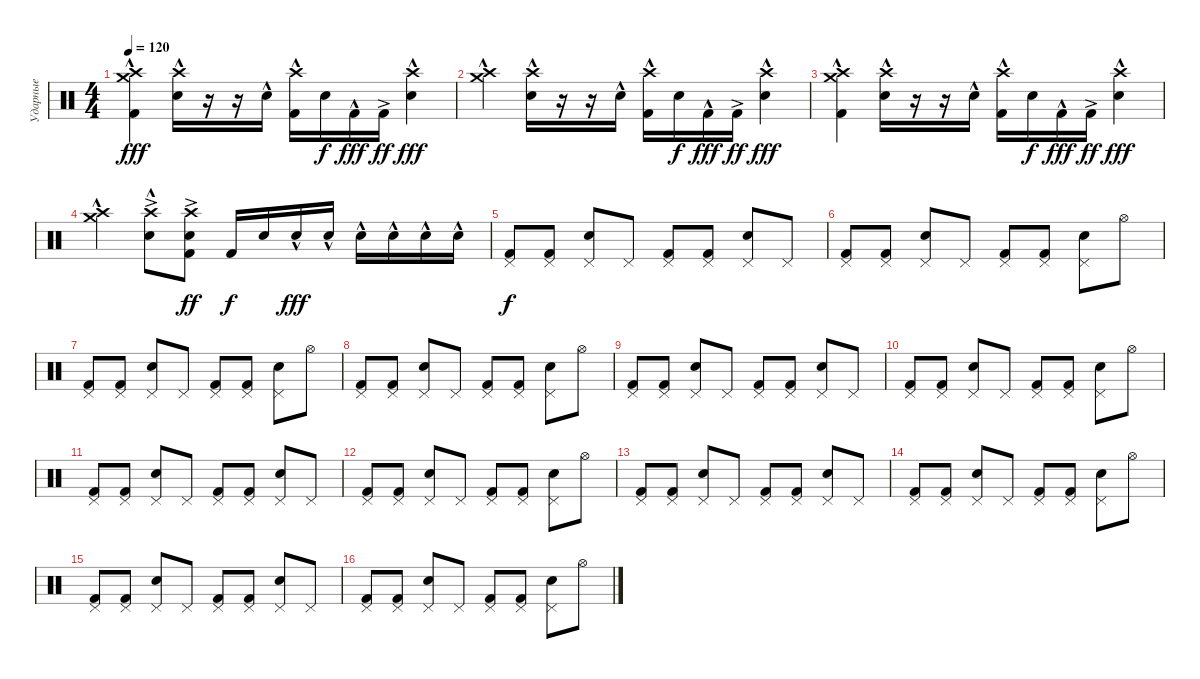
\track ("Ударные" "Ударные") {instrument percussion}
\staff {score}
\articulation defaults
\ts (4 4)
\tempo 120
\clef neutral
\ks c
("Crash high (hit)"{hac} "Crash medium (hit)"{hac} "Kick (hit) 2").4{dy fff} ("Crash high (hit)"{hac} "Electric Snare (hit)"{hac}).16 r.16 r.16 "Electric Snare (hit)"{hac}.16 ("Crash high (hit)"{hac} "Kick (hit) 2").16 "Electric Snare (hit)".16{dy f} "Kick (hit) 2"{hac}.16{dy fff} "Kick (hit) 2"{ac}.16{dy ff} ("Crash high (hit)"{hac} "Electric Snare (hit)"{hac}).4{dy fff} |
("Crash high (hit)"{hac} "Crash medium (hit)"{hac}).4 ("Crash high (hit)"{hac} "Electric Snare (hit)"{hac}).16 r.16 r.16 "Electric Snare (hit)"{hac}.16 ("Crash high (hit)"{hac} "Kick (hit) 2").16 "Electric Snare (hit)".16{dy f} "Kick (hit) 2"{hac}.16{dy fff} "Kick (hit) 2"{ac}.16{dy ff} ("Crash high (hit)"{hac} "Electric Snare (hit)"{hac}).4{dy fff} |
("Crash high (hit)"{hac} "Crash medium (hit)"{hac} "Kick (hit) 2").4 ("Crash high (hit)"{hac} "Electric Snare (hit)"{hac}).16 r.16 r.16 "Electric Snare (hit)"{hac}.16 ("Crash high (hit)"{hac} "Kick (hit) 2").16 "Electric Snare (hit)".16{dy f} "Kick (hit) 2"{hac}.16{dy fff} "Kick (hit) 2"{ac}.16{dy ff} ("Crash high (hit)"{hac} "Electric Snare (hit)"{hac}).4{dy fff} |
("Crash high (hit)"{hac} "Crash medium (hit)"{hac}).4 ("Crash high (hit)"{ac} "Electric Snare (hit)"{hac}).8 ("Crash high (hit)"{ac} "Electric Snare (hit)"{ac} "Kick (hit) 2").8{dy ff} "Kick (hit) 2".16{dy f} "Electric Snare (hit)".16 "Electric Snare (hit)"{hac}.16{dy fff} "Electric Snare (hit)"{hac}.16 "Electric Snare (hit)"{hac}.16 "Electric Snare (hit)"{hac}.16 "Electric Snare (hit)"{hac}.16 "Electric Snare (hit)"{hac}.16 |
("Pedal Hi-Hat (hit)" "Kick (hit) 2").8{dy f} ("Pedal Hi-Hat (hit)" "Kick (hit) 2").8 ("Pedal Hi-Hat (hit)" "Electric Snare (hit)").8 "Pedal Hi-Hat (hit)".8 ("Pedal Hi-Hat (hit)" "Kick (hit) 2").8 ("Pedal Hi-Hat (hit)" "Kick (hit) 2").8 ("Pedal Hi-Hat (hit)" "Electric Snare (hit)").8 "Pedal Hi-Hat (hit)".8 |
("Pedal Hi-Hat (hit)" "Kick (hit) 2").8 ("Pedal Hi-Hat (hit)" "Kick (hit) 2").8 ("Pedal Hi-Hat (hit)" "Electric Snare (hit)").8 "Pedal Hi-Hat (hit)".8 ("Pedal Hi-Hat (hit)" "Kick (hit) 2").8 ("Pedal Hi-Hat (hit)" "Kick (hit) 2").8 ("Pedal Hi-Hat (hit)" "Electric Snare (hit)").8 "Hi-Hat (open)".8 |
("Pedal Hi-Hat (hit)" "Kick (hit) 2").8 ("Pedal Hi-Hat (hit)" "Kick (hit) 2").8 ("Pedal Hi-Hat (hit)" "Electric Snare (hit)").8 "Pedal Hi-Hat (hit)".8 ("Pedal Hi-Hat (hit)" "Kick (hit) 2").8 ("Pedal Hi-Hat (hit)" "Kick (hit) 2").8 ("Pedal Hi-Hat (hit)" "Electric Snare (hit)").8 "Hi-Hat (open)".8 |
("Pedal Hi-Hat (hit)" "Kick (hit) 2").8 ("Pedal Hi-Hat (hit)" "Kick (hit) 2").8 ("Pedal Hi-Hat (hit)" "Electric Snare (hit)").8 "Pedal Hi-Hat (hit)".8 ("Pedal Hi-Hat (hit)" "Kick (hit) 2").8 ("Pedal Hi-Hat (hit)" "Kick (hit) 2").8 ("Pedal Hi-Hat (hit)" "Electric Snare (hit)").8 "Hi-Hat (open)".8 |
("Pedal Hi-Hat (hit)" "Kick (hit) 2").8 ("Pedal Hi-Hat (hit)" "Kick (hit) 2").8 ("Pedal Hi-Hat (hit)" "Electric Snare (hit)").8 "Pedal Hi-Hat (hit)".8 ("Pedal Hi-Hat (hit)" "Kick (hit) 2").8 ("Pedal Hi-Hat (hit)" "Kick (hit) 2").8 ("Pedal Hi-Hat (hit)" "Electric Snare (hit)").8 "Pedal Hi-Hat (hit)".8 |
("Pedal Hi-Hat (hit)" "Kick (hit) 2").8 ("Pedal Hi-Hat (hit)" "Kick (hit) 2").8 ("Pedal Hi-Hat (hit)" "Electric Snare (hit)").8 "Pedal Hi-Hat (hit)".8 ("Pedal Hi-Hat (hit)" "Kick (hit) 2").8 ("Pedal Hi-Hat (hit)" "Kick (hit) 2").8 ("Pedal Hi-Hat (hit)" "Electric Snare (hit)").8 "Hi-Hat (open)".8 |
("Pedal Hi-Hat (hit)" "Kick (hit) 2").8 ("Pedal Hi-Hat (hit)" "Kick (hit) 2").8 ("Pedal Hi-Hat (hit)" "Electric Snare (hit)").8 "Pedal Hi-Hat (hit)".8 ("Pedal Hi-Hat (hit)" "Kick (hit) 2").8 ("Pedal Hi-Hat (hit)" "Kick (hit) 2").8 ("Pedal Hi-Hat (hit)" "Electric Snare (hit)").8 "Pedal Hi-Hat (hit)".8 |
("Pedal Hi-Hat (hit)" "Kick (hit) 2").8 ("Pedal Hi-Hat (hit)" "Kick (hit) 2").8 ("Pedal Hi-Hat (hit)" "Electric Snare (hit)").8 "Pedal Hi-Hat (hit)".8 ("Pedal Hi-Hat (hit)" "Kick (hit) 2").8 ("Pedal Hi-Hat (hit)" "Kick (hit) 2").8 ("Pedal Hi-Hat (hit)" "Electric Snare (hit)").8 "Hi-Hat (open)".8 |
("Pedal Hi-Hat (hit)" "Kick (hit) 2").8 ("Pedal Hi-Hat (hit)" "Kick (hit) 2").8 ("Pedal Hi-Hat (hit)" "Electric Snare (hit)").8 "Pedal Hi-Hat (hit)".8 ("Pedal Hi-Hat (hit)" "Kick (hit) 2").8 ("Pedal Hi-Hat (hit)" "Kick (hit) 2").8 ("Pedal Hi-Hat (hit)" "Electric Snare (hit)").8 "Pedal Hi-Hat (hit)".8 |
("Pedal Hi-Hat (hit)" "Kick (hit) 2").8 ("Pedal Hi-Hat (hit)" "Kick (hit) 2").8 ("Pedal Hi-Hat (hit)" "Electric Snare (hit)").8 "Pedal Hi-Hat (hit)".8 ("Pedal Hi-Hat (hit)" "Kick (hit) 2").8 ("Pedal Hi-Hat (hit)" "Kick (hit) 2").8 ("Pedal Hi-Hat (hit)" "Electric Snare (hit)").8 "Hi-Hat (open)".8 |
("Pedal Hi-Hat (hit)" "Kick (hit) 2").8 ("Pedal Hi-Hat (hit)" "Kick (hit) 2").8 ("Pedal Hi-Hat (hit)" "Electric Snare (hit)").8 "Pedal Hi-Hat (hit)".8 ("Pedal Hi-Hat (hit)" "Kick (hit) 2").8 ("Pedal Hi-Hat (hit)" "Kick (hit) 2").8 ("Pedal Hi-Hat (hit)" "Electric Snare (hit)").8 "Pedal Hi-Hat (hit)".8 |
("Pedal Hi-Hat (hit)" "Kick (hit) 2").8 ("Pedal Hi-Hat (hit)" "Kick (hit) 2").8 ("Pedal Hi-Hat (hit)" "Electric Snare (hit)").8 "Pedal Hi-Hat (hit)".8 ("Pedal Hi-Hat (hit)" "Kick (hit) 2").8 ("Pedal Hi-Hat (hit)" "Kick (hit) 2").8 ("Pedal Hi-Hat (hit)" "Electric Snare (hit)").8 "Hi-Hat (open)".8
